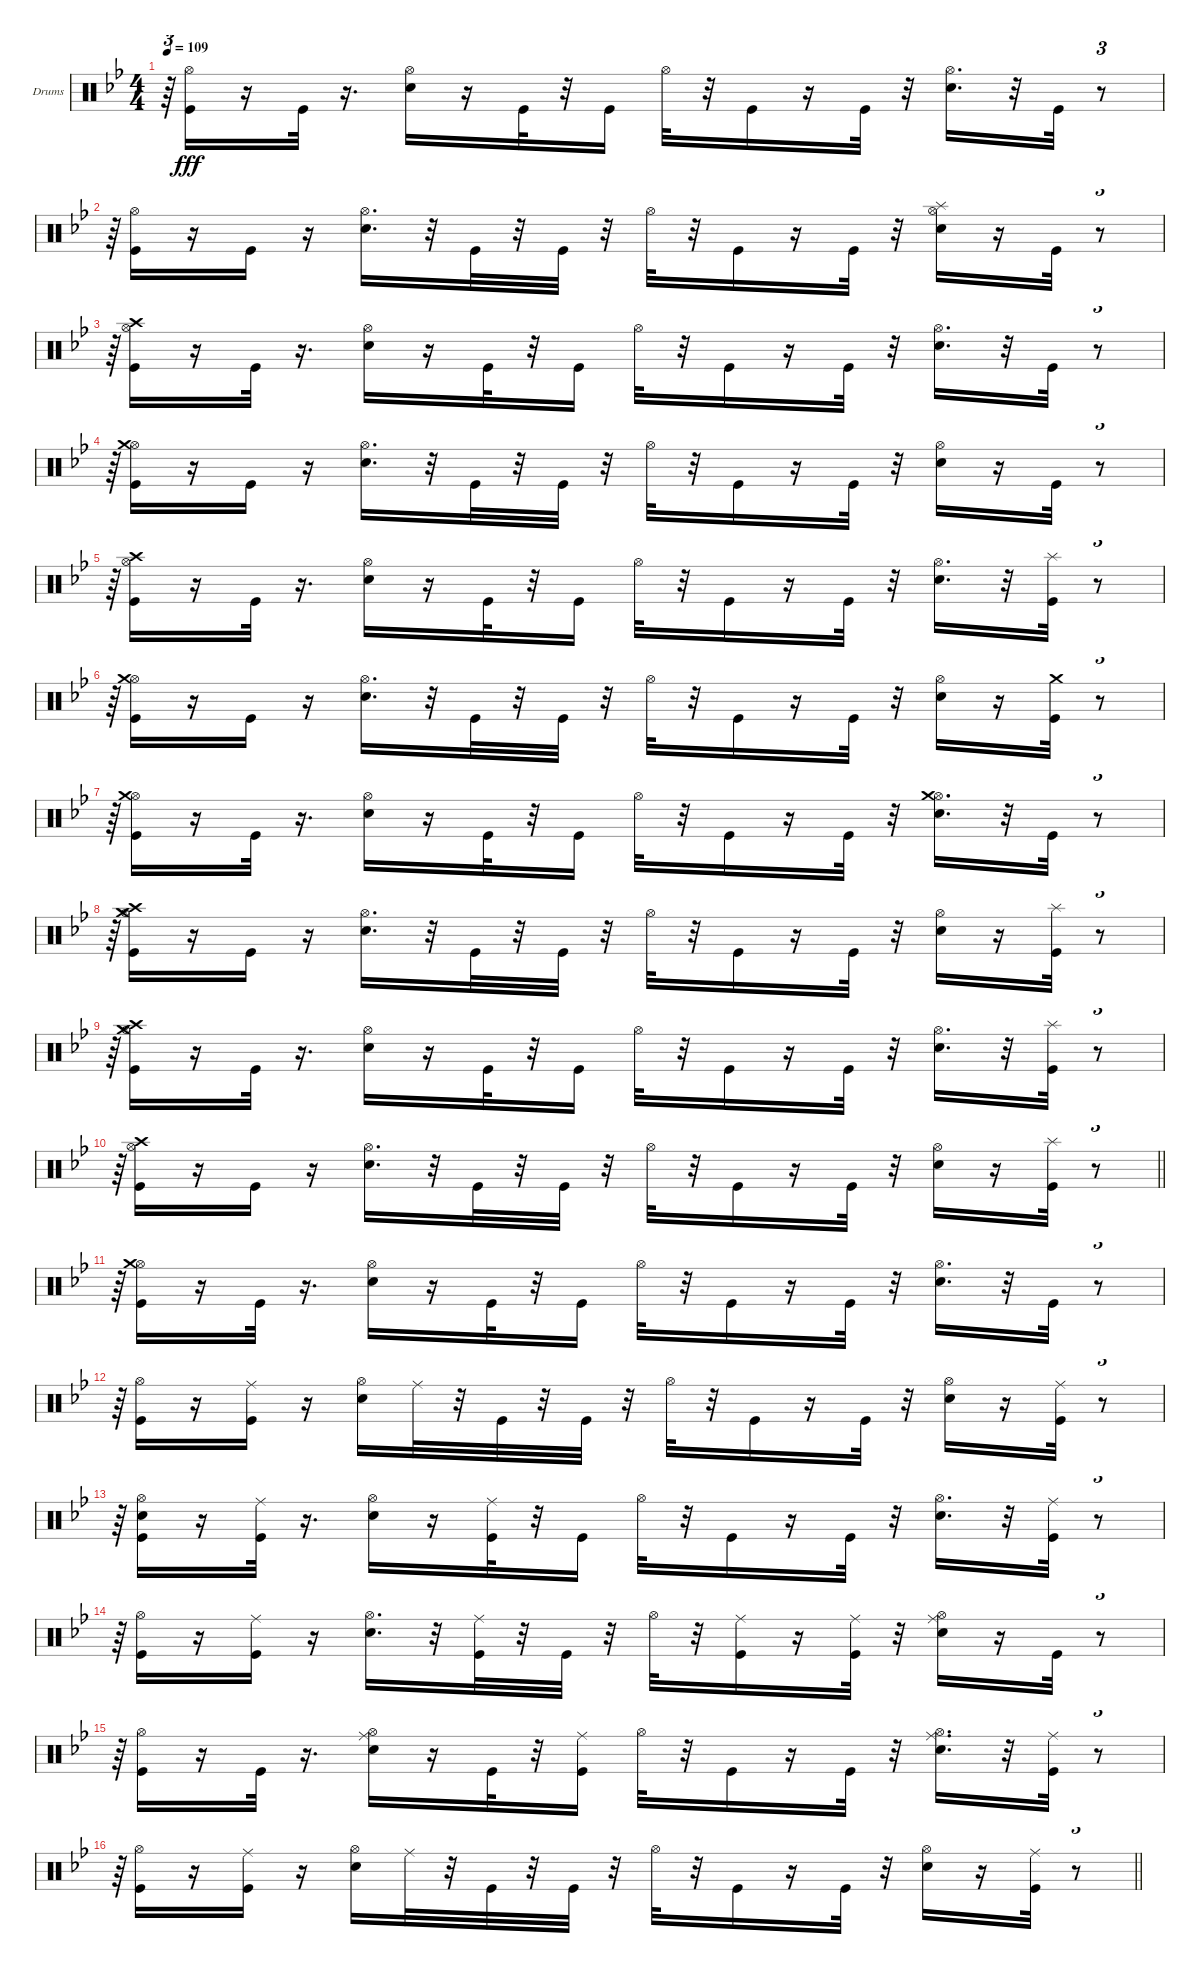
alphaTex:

\bracketExtendMode groupsimilarinstruments
\firstSystemTrackNameOrientation horizontal
\otherSystemsTrackNameOrientation horizontal
\track ("Drumkit" "Drums") {instrument percussion}
\staff {score}
\articulation defaults
\ts (4 4)
\tempo 109
\clef neutral
\ks gminor
r.64{tu (3 2) dy fff} ("Kick (hit)" "Hi-Hat (open)").16 r.16 "Kick (hit)".32 r.16{d} ("Snare (hit) 2" "Hi-Hat (open)").16 r.16 "Kick (hit)".32 r.32 "Kick (hit)".16 "Hi-Hat (open)".32 r.32 "Kick (hit)".16 r.16 "Kick (hit)".32 r.32 ("Snare (hit) 2" "Hi-Hat (open)").16{d} r.32 "Kick (hit)".32 r.8{tu (3 2)} |
r.64{tu (3 2)} ("Kick (hit)" "Hi-Hat (open)").16 r.16 "Kick (hit)".16 r.16 ("Snare (hit) 2" "Hi-Hat (open)").16{d} r.32 "Kick (hit)".32 r.32 "Kick (hit)".32 r.32 "Hi-Hat (open)".32 r.32 "Kick (hit)".16 r.16 "Kick (hit)".32 r.32 ("Snare (hit) 2" "Hi-Hat (open)" "Splash (hit)").16 r.16 "Kick (hit)".32 r.8{tu (3 2)} |
r.64{tu (3 2)} ("Kick (hit)" "Hi-Hat (open)" "Crash high (hit)").16 r.16 "Kick (hit)".32 r.16{d} ("Snare (hit) 2" "Hi-Hat (open)").16 r.16 "Kick (hit)".32 r.32 "Kick (hit)".16 "Hi-Hat (open)".32 r.32 "Kick (hit)".16 r.16 "Kick (hit)".32 r.32 ("Snare (hit) 2" "Hi-Hat (open)").16{d} r.32 "Kick (hit)".32 r.8{tu (3 2)} |
r.64{tu (3 2)} ("Kick (hit)" "Hi-Hat (open)" "Crash medium (hit)").16 r.16 "Kick (hit)".16 r.16 ("Snare (hit) 2" "Hi-Hat (open)").16{d} r.32 "Kick (hit)".32 r.32 "Kick (hit)".32 r.32 "Hi-Hat (open)".32 r.32 "Kick (hit)".16 r.16 "Kick (hit)".32 r.32 ("Snare (hit) 2" "Hi-Hat (open)").16 r.16 "Kick (hit)".32 r.8{tu (3 2)} |
r.64{tu (3 2)} ("Kick (hit)" "Hi-Hat (open)" "Crash high (hit)").16 r.16 "Kick (hit)".32 r.16{d} ("Snare (hit) 2" "Hi-Hat (open)").16 r.16 "Kick (hit)".32 r.32 "Kick (hit)".16 "Hi-Hat (open)".32 r.32 "Kick (hit)".16 r.16 "Kick (hit)".32 r.32 ("Snare (hit) 2" "Hi-Hat (open)").16{d} r.32 ("Kick (hit)" "Splash (hit)").32 r.8{tu (3 2)} |
r.64{tu (3 2)} ("Kick (hit)" "Hi-Hat (open)" "Crash medium (hit)").16 r.16 "Kick (hit)".16 r.16 ("Snare (hit) 2" "Hi-Hat (open)").16{d} r.32 "Kick (hit)".32 r.32 "Kick (hit)".32 r.32 "Hi-Hat (open)".32 r.32 "Kick (hit)".16 r.16 "Kick (hit)".32 r.32 ("Snare (hit) 2" "Hi-Hat (open)").16 r.16 ("Kick (hit)" "Crash medium (hit)").32 r.8{tu (3 2)} |
r.64{tu (3 2)} ("Kick (hit)" "Hi-Hat (open)" "Crash medium (hit)").16 r.16 "Kick (hit)".32 r.16{d} ("Snare (hit) 2" "Hi-Hat (open)").16 r.16 "Kick (hit)".32 r.32 "Kick (hit)".16 "Hi-Hat (open)".32 r.32 "Kick (hit)".16 r.16 "Kick (hit)".32 r.32 ("Snare (hit) 2" "Hi-Hat (open)" "Crash medium (hit)").16{d} r.32 "Kick (hit)".32 r.8{tu (3 2)} |
r.64{tu (3 2)} ("Kick (hit)" "Hi-Hat (open)" "Crash medium (hit)" "Crash high (hit)").16 r.16 "Kick (hit)".16 r.16 ("Snare (hit) 2" "Hi-Hat (open)").16{d} r.32 "Kick (hit)".32 r.32 "Kick (hit)".32 r.32 "Hi-Hat (open)".32 r.32 "Kick (hit)".16 r.16 "Kick (hit)".32 r.32 ("Snare (hit) 2" "Hi-Hat (open)").16 r.16 ("Kick (hit)" "Splash (hit)").32 r.8{tu (3 2)} |
r.64{tu (3 2)} ("Kick (hit)" "Hi-Hat (open)" "Crash medium (hit)" "Crash high (hit)").16 r.16 "Kick (hit)".32 r.16{d} ("Snare (hit) 2" "Hi-Hat (open)").16 r.16 "Kick (hit)".32 r.32 "Kick (hit)".16 "Hi-Hat (open)".32 r.32 "Kick (hit)".16 r.16 "Kick (hit)".32 r.32 ("Snare (hit) 2" "Hi-Hat (open)").16{d} r.32 ("Kick (hit)" "Splash (hit)").32 r.8{tu (3 2)} |
\barLineRight lightlight
r.64{tu (3 2)} ("Kick (hit)" "Hi-Hat (open)" "Crash high (hit)").16 r.16 "Kick (hit)".16 r.16 ("Snare (hit) 2" "Hi-Hat (open)").16{d} r.32 "Kick (hit)".32 r.32 "Kick (hit)".32 r.32 "Hi-Hat (open)".32 r.32 "Kick (hit)".16 r.16 "Kick (hit)".32 r.32 ("Snare (hit) 2" "Hi-Hat (open)").16 r.16 ("Kick (hit)" "Splash (hit)").32 r.8{tu (3 2)} |
r.64{tu (3 2)} ("Kick (hit)" "Hi-Hat (open)" "Crash medium (hit)").16 r.16 "Kick (hit)".32 r.16{d} ("Snare (hit) 2" "Hi-Hat (open)").16 r.16 "Kick (hit)".32 r.32 "Kick (hit)".16 "Hi-Hat (open)".32 r.32 "Kick (hit)".16 r.16 "Kick (hit)".32 r.32 ("Snare (hit) 2" "Hi-Hat (open)").16{d} r.32 "Kick (hit)".32 r.8{tu (3 2)} |
r.64{tu (3 2)} ("Kick (hit)" "Hi-Hat (open)").16 r.16 ("Kick (hit)" "Ride (middle)").16 r.16 ("Snare (hit) 2" "Hi-Hat (open)").16 "Ride (middle)".32 r.32 "Kick (hit)".32 r.32 "Kick (hit)".32 r.32 "Hi-Hat (open)".32 r.32 "Kick (hit)".16 r.16 "Kick (hit)".32 r.32 ("Snare (hit) 2" "Hi-Hat (open)").16 r.16 ("Kick (hit)" "Ride (middle)").32 r.8{tu (3 2)} |
r.64{tu (3 2)} ("Kick (hit)" "Snare (hit) 2" "Hi-Hat (open)").16 r.16 ("Kick (hit)" "Ride (middle)").32 r.16{d} ("Snare (hit) 2" "Hi-Hat (open)").16 r.16 ("Kick (hit)" "Ride (middle)").32 r.32 "Kick (hit)".16 "Hi-Hat (open)".32 r.32 "Kick (hit)".16 r.16 "Kick (hit)".32 r.32 ("Snare (hit) 2" "Hi-Hat (open)").16{d} r.32 ("Kick (hit)" "Ride (middle)").32 r.8{tu (3 2)} |
r.64{tu (3 2)} ("Kick (hit)" "Hi-Hat (open)").16 r.16 ("Kick (hit)" "Ride (middle)").16 r.16 ("Snare (hit) 2" "Hi-Hat (open)").16{d} r.32 ("Kick (hit)" "Ride (middle)").32 r.32 "Kick (hit)".32 r.32 "Hi-Hat (open)".32 r.32 ("Kick (hit)" "Ride (middle)").16 r.16 ("Kick (hit)" "Ride (middle)").32 r.32 ("Snare (hit) 2" "Hi-Hat (open)" "Ride (middle)").16 r.16 "Kick (hit)".32 r.8{tu (3 2)} |
r.64{tu (3 2)} ("Kick (hit)" "Hi-Hat (open)").16 r.16 "Kick (hit)".32 r.16{d} ("Snare (hit) 2" "Hi-Hat (open)" "Ride (middle)").16 r.16 "Kick (hit)".32 r.32 ("Kick (hit)" "Ride (middle)").16 "Hi-Hat (open)".32 r.32 "Kick (hit)".16 r.16 "Kick (hit)".32 r.32 ("Snare (hit) 2" "Hi-Hat (open)" "Ride (middle)").16{d} r.32 ("Kick (hit)" "Ride (middle)").32 r.8{tu (3 2)} |
\barLineRight lightlight
r.64{tu (3 2)} ("Kick (hit)" "Hi-Hat (open)").16 r.16 ("Kick (hit)" "Ride (middle)").16 r.16 ("Snare (hit) 2" "Hi-Hat (open)").16 "Ride (middle)".32 r.32 "Kick (hit)".32 r.32 "Kick (hit)".32 r.32 "Hi-Hat (open)".32 r.32 "Kick (hit)".16 r.16 "Kick (hit)".32 r.32 ("Snare (hit) 2" "Hi-Hat (open)").16 r.16 ("Kick (hit)" "Ride (middle)").32 r.8{tu (3 2)}
